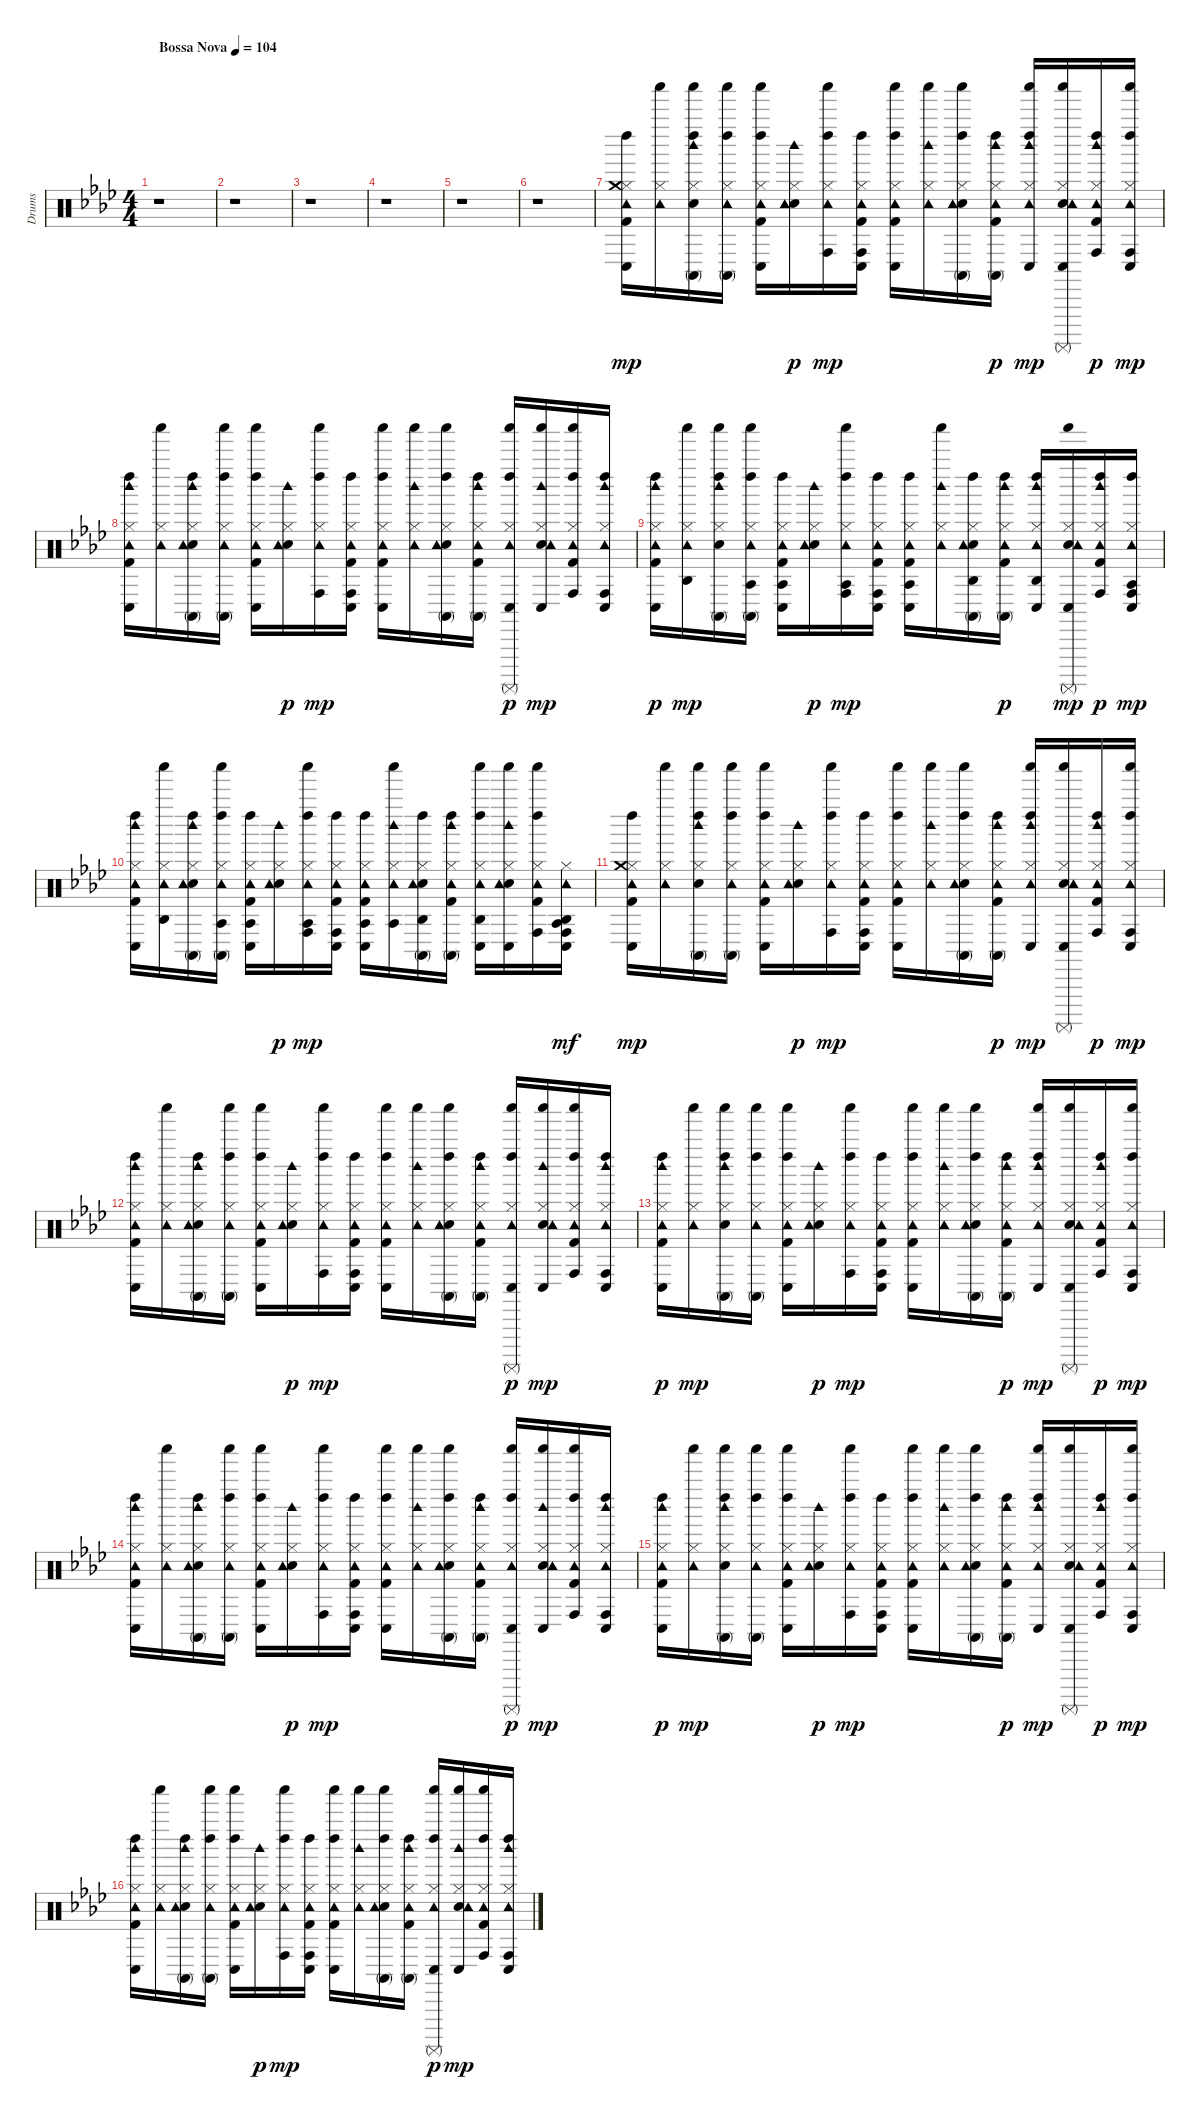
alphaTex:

\track ("Drums" "Drums") {instrument percussion}
\staff {score}
\articulation defaults
\ts (4 4)
\tempo (104 "Bossa Nova")
\clef neutral
\ks ab
r.1{dy mp} |
r.1 |
r.1 |
r.1 |
r.1 |
r.1 |
("Kick (hit) 2" "Hi-Hat (closed)" "Tambourine (hit)" "Crash medium (hit)" "Conga low (hit)" "Left Maraca (hit)").16 ("Hi-Hat (closed)" "Tambourine (hit)" "Shaker (hit)").16 ("Hand Clap (hit)" "Hi-Hat (closed)" "Conga high (mute)" "Left Maraca (hit)" "Woodblock high (hit)" "Shaker (hit)").16 ("Hi-Hat (closed)" "Tambourine (hit)" "Conga high (mute)" "Left Maraca (hit)" "Shaker (hit)").16 ("Kick (hit) 2" "Hi-Hat (closed)" "Tambourine (hit)" "Conga low (hit)" "Left Maraca (hit)" "Shaker (hit)").16 ("Hand Clap (hit)" "Hi-Hat (closed)" "Tambourine (hit)" "Woodblock high (hit)").16{dy p} ("Hi-Hat (closed)" "Tambourine (hit)" "Conga high (hit)" "Left Maraca (hit)" "Shaker (hit)").16{dy mp} ("Kick (hit) 2" "Hi-Hat (closed)" "Tambourine (hit)" "Conga high (hit)" "Conga low (hit)" "Left Maraca (hit)").16 ("Kick (hit) 2" "Hi-Hat (closed)" "Tambourine (hit)" "Conga low (hit)" "Left Maraca (hit)" "Shaker (hit)").16 ("Hi-Hat (closed)" "Tambourine (hit)" "Woodblock high (hit)" "Shaker (hit)").16 ("Hand Clap (hit)" "Hi-Hat (closed)" "Tambourine (hit)" "Conga high (mute)" "Left Maraca (hit)" "Shaker (hit)").16 ("Kick (hit) 2" "Hi-Hat (closed)" "Tambourine (hit)" "Conga high (mute)" "Left Maraca (hit)" "Woodblock high (hit)").16{dy p} ("Hi-Hat (closed)" "Tambourine (hit)" "Conga low (hit)" "Left Maraca (hit)" "Woodblock high (hit)" "Shaker (hit)").16{dy mp} ("Hand Clap (hit)" "Hi-Hat (closed)" "Tambourine (hit)" "Conga low (hit)" "Shaker (hit)" "Surdo (mute)").16 ("Kick (hit) 2" "Hi-Hat (closed)" "Tambourine (hit)" "Conga high (hit)" "Left Maraca (hit)" "Woodblock high (hit)").16{dy p} ("Hi-Hat (closed)" "Tambourine (hit)" "Conga high (hit)" "Conga low (hit)" "Left Maraca (hit)" "Shaker (hit)").16{dy mp} |
("Kick (hit) 2" "Hi-Hat (closed)" "Tambourine (hit)" "Conga low (hit)" "Left Maraca (hit)" "Woodblock high (hit)").16 ("Hi-Hat (closed)" "Tambourine (hit)" "Shaker (hit)").16 ("Hand Clap (hit)" "Hi-Hat (closed)" "Tambourine (hit)" "Conga high (mute)" "Left Maraca (hit)" "Woodblock high (hit)").16 ("Hi-Hat (closed)" "Tambourine (hit)" "Conga high (mute)" "Left Maraca (hit)" "Shaker (hit)").16 ("Kick (hit) 2" "Hi-Hat (closed)" "Tambourine (hit)" "Conga low (hit)" "Left Maraca (hit)" "Shaker (hit)").16 ("Hand Clap (hit)" "Hi-Hat (closed)" "Tambourine (hit)" "Woodblock high (hit)").16{dy p} ("Hi-Hat (closed)" "Tambourine (hit)" "Conga high (hit)" "Left Maraca (hit)" "Shaker (hit)").16{dy mp} ("Kick (hit) 2" "Hi-Hat (closed)" "Tambourine (hit)" "Conga high (hit)" "Conga low (hit)" "Left Maraca (hit)").16 ("Kick (hit) 2" "Hi-Hat (closed)" "Tambourine (hit)" "Conga low (hit)" "Left Maraca (hit)" "Shaker (hit)").16 ("Hi-Hat (closed)" "Tambourine (hit)" "Woodblock high (hit)" "Shaker (hit)").16 ("Hand Clap (hit)" "Hi-Hat (closed)" "Tambourine (hit)" "Conga high (mute)" "Left Maraca (hit)" "Shaker (hit)").16 ("Kick (hit) 2" "Hi-Hat (closed)" "Tambourine (hit)" "Conga high (mute)" "Left Maraca (hit)" "Woodblock high (hit)").16 ("Hi-Hat (closed)" "Tambourine (hit)" "Conga low (hit)" "Left Maraca (hit)" "Shaker (hit)" "Surdo (mute)").16{dy p} ("Hand Clap (hit)" "Hi-Hat (closed)" "Tambourine (hit)" "Conga low (hit)" "Woodblock high (hit)" "Shaker (hit)").16{dy mp} ("Kick (hit) 2" "Hi-Hat (closed)" "Tambourine (hit)" "Conga high (hit)" "Left Maraca (hit)" "Shaker (hit)").16 ("Hi-Hat (closed)" "Tambourine (hit)" "Conga high (hit)" "Conga low (hit)" "Left Maraca (hit)" "Woodblock high (hit)").16 |
("Kick (hit) 2" "Hi-Hat (closed)" "Tambourine (hit)" "Conga low (hit)" "Left Maraca (hit)" "Woodblock high (hit)").16{dy p} ("Hi-Hat (closed)" "Tambourine (hit)" "Agogo high (hit)" "Shaker (hit)").16{dy mp} ("Hand Clap (hit)" "Hi-Hat (closed)" "Conga high (mute)" "Left Maraca (hit)" "Woodblock high (hit)" "Shaker (hit)").16 ("Hi-Hat (closed)" "Tambourine (hit)" "Conga high (mute)" "Agogo tow (hit)" "Left Maraca (hit)" "Shaker (hit)").16 ("Kick (hit) 2" "Hi-Hat (closed)" "Tambourine (hit)" "Conga low (hit)" "Agogo tow (hit)" "Left Maraca (hit)").16 ("Hand Clap (hit)" "Hi-Hat (closed)" "Tambourine (hit)" "Woodblock high (hit)").16{dy p} ("Hi-Hat (closed)" "Tambourine (hit)" "Conga high (hit)" "Agogo tow (hit)" "Left Maraca (hit)" "Shaker (hit)").16{dy mp} ("Kick (hit) 2" "Hi-Hat (closed)" "Tambourine (hit)" "Conga high (hit)" "Conga low (hit)" "Left Maraca (hit)").16 ("Kick (hit) 2" "Hi-Hat (closed)" "Tambourine (hit)" "Conga low (hit)" "Agogo tow (hit)" "Left Maraca (hit)").16 ("Hi-Hat (closed)" "Tambourine (hit)" "Woodblock high (hit)" "Shaker (hit)").16 ("Hand Clap (hit)" "Hi-Hat (closed)" "Tambourine (hit)" "Conga high (mute)" "Agogo high (hit)" "Left Maraca (hit)").16 ("Kick (hit) 2" "Hi-Hat (closed)" "Tambourine (hit)" "Conga high (mute)" "Left Maraca (hit)" "Woodblock high (hit)").16{dy p} ("Hi-Hat (closed)" "Tambourine (hit)" "Conga low (hit)" "Agogo high (hit)" "Left Maraca (hit)" "Woodblock high (hit)").16 ("Hand Clap (hit)" "Hi-Hat (closed)" "Tambourine (hit)" "Conga low (hit)" "Shaker (hit)" "Surdo (mute)").16{dy mp} ("Kick (hit) 2" "Hi-Hat (closed)" "Tambourine (hit)" "Conga high (hit)" "Left Maraca (hit)" "Woodblock high (hit)").16{dy p} ("Hi-Hat (closed)" "Tambourine (hit)" "Conga high (hit)" "Conga low (hit)" "Agogo tow (hit)" "Left Maraca (hit)").16{dy mp} |
("Kick (hit) 2" "Hi-Hat (closed)" "Tambourine (hit)" "Conga low (hit)" "Left Maraca (hit)" "Woodblock high (hit)").16 ("Hi-Hat (closed)" "Tambourine (hit)" "Agogo high (hit)" "Shaker (hit)").16 ("Hand Clap (hit)" "Hi-Hat (closed)" "Tambourine (hit)" "Conga high (mute)" "Left Maraca (hit)" "Woodblock high (hit)").16 ("Hi-Hat (closed)" "Tambourine (hit)" "Conga high (mute)" "Agogo tow (hit)" "Left Maraca (hit)" "Shaker (hit)").16 ("Kick (hit) 2" "Hi-Hat (closed)" "Tambourine (hit)" "Conga low (hit)" "Agogo tow (hit)" "Left Maraca (hit)").16 ("Hand Clap (hit)" "Hi-Hat (closed)" "Tambourine (hit)" "Woodblock high (hit)").16{dy p} ("Hi-Hat (closed)" "Tambourine (hit)" "Conga high (hit)" "Agogo tow (hit)" "Left Maraca (hit)" "Shaker (hit)").16{dy mp} ("Kick (hit) 2" "Hi-Hat (closed)" "Tambourine (hit)" "Conga high (hit)" "Conga low (hit)" "Left Maraca (hit)").16 ("Kick (hit) 2" "Hi-Hat (closed)" "Tambourine (hit)" "Conga low (hit)" "Agogo tow (hit)" "Left Maraca (hit)").16 ("Hi-Hat (closed)" "Tambourine (hit)" "Agogo tow (hit)" "Woodblock high (hit)" "Shaker (hit)").16 ("Hand Clap (hit)" "Hi-Hat (closed)" "Tambourine (hit)" "Conga high (mute)" "Agogo high (hit)" "Left Maraca (hit)").16 ("Kick (hit) 2" "Hi-Hat (closed)" "Tambourine (hit)" "Conga high (mute)" "Left Maraca (hit)" "Woodblock high (hit)").16 ("Hi-Hat (closed)" "Tambourine (hit)" "Conga low (hit)" "Agogo high (hit)" "Left Maraca (hit)" "Shaker (hit)").16 ("Hand Clap (hit)" "Hi-Hat (closed)" "Tambourine (hit)" "Conga low (hit)" "Woodblock high (hit)" "Shaker (hit)").16 ("Kick (hit) 2" "Hi-Hat (closed)" "Tambourine (hit)" "Conga high (hit)" "Left Maraca (hit)" "Shaker (hit)").16 ("Hi-Hat (closed)" "Tambourine (hit)" "Conga high (hit)" "Conga low (hit)" "Agogo high (hit)" "Agogo tow (hit)").16{dy mf} |
("Kick (hit) 2" "Hi-Hat (closed)" "Tambourine (hit)" "Crash medium (hit)" "Conga low (hit)" "Left Maraca (hit)").16{dy mp} ("Hi-Hat (closed)" "Tambourine (hit)" "Shaker (hit)").16 ("Hand Clap (hit)" "Hi-Hat (closed)" "Conga high (mute)" "Left Maraca (hit)" "Woodblock high (hit)" "Shaker (hit)").16 ("Hi-Hat (closed)" "Tambourine (hit)" "Conga high (mute)" "Left Maraca (hit)" "Shaker (hit)").16 ("Kick (hit) 2" "Hi-Hat (closed)" "Tambourine (hit)" "Conga low (hit)" "Left Maraca (hit)" "Shaker (hit)").16 ("Hand Clap (hit)" "Hi-Hat (closed)" "Tambourine (hit)" "Woodblock high (hit)").16{dy p} ("Hi-Hat (closed)" "Tambourine (hit)" "Conga high (hit)" "Left Maraca (hit)" "Shaker (hit)").16{dy mp} ("Kick (hit) 2" "Hi-Hat (closed)" "Tambourine (hit)" "Conga high (hit)" "Conga low (hit)" "Left Maraca (hit)").16 ("Kick (hit) 2" "Hi-Hat (closed)" "Tambourine (hit)" "Conga low (hit)" "Left Maraca (hit)" "Shaker (hit)").16 ("Hi-Hat (closed)" "Tambourine (hit)" "Woodblock high (hit)" "Shaker (hit)").16 ("Hand Clap (hit)" "Hi-Hat (closed)" "Tambourine (hit)" "Conga high (mute)" "Left Maraca (hit)" "Shaker (hit)").16 ("Kick (hit) 2" "Hi-Hat (closed)" "Tambourine (hit)" "Conga high (mute)" "Left Maraca (hit)" "Woodblock high (hit)").16{dy p} ("Hi-Hat (closed)" "Tambourine (hit)" "Conga low (hit)" "Left Maraca (hit)" "Woodblock high (hit)" "Shaker (hit)").16{dy mp} ("Hand Clap (hit)" "Hi-Hat (closed)" "Tambourine (hit)" "Conga low (hit)" "Shaker (hit)" "Surdo (mute)").16 ("Kick (hit) 2" "Hi-Hat (closed)" "Tambourine (hit)" "Conga high (hit)" "Left Maraca (hit)" "Woodblock high (hit)").16{dy p} ("Hi-Hat (closed)" "Tambourine (hit)" "Conga high (hit)" "Conga low (hit)" "Left Maraca (hit)" "Shaker (hit)").16{dy mp} |
("Kick (hit) 2" "Hi-Hat (closed)" "Tambourine (hit)" "Conga low (hit)" "Left Maraca (hit)" "Woodblock high (hit)").16 ("Hi-Hat (closed)" "Tambourine (hit)" "Shaker (hit)").16 ("Hand Clap (hit)" "Hi-Hat (closed)" "Tambourine (hit)" "Conga high (mute)" "Left Maraca (hit)" "Woodblock high (hit)").16 ("Hi-Hat (closed)" "Tambourine (hit)" "Conga high (mute)" "Left Maraca (hit)" "Shaker (hit)").16 ("Kick (hit) 2" "Hi-Hat (closed)" "Tambourine (hit)" "Conga low (hit)" "Left Maraca (hit)" "Shaker (hit)").16 ("Hand Clap (hit)" "Hi-Hat (closed)" "Tambourine (hit)" "Woodblock high (hit)").16{dy p} ("Hi-Hat (closed)" "Tambourine (hit)" "Conga high (hit)" "Left Maraca (hit)" "Shaker (hit)").16{dy mp} ("Kick (hit) 2" "Hi-Hat (closed)" "Tambourine (hit)" "Conga high (hit)" "Conga low (hit)" "Left Maraca (hit)").16 ("Kick (hit) 2" "Hi-Hat (closed)" "Tambourine (hit)" "Conga low (hit)" "Left Maraca (hit)" "Shaker (hit)").16 ("Hi-Hat (closed)" "Tambourine (hit)" "Woodblock high (hit)" "Shaker (hit)").16 ("Hand Clap (hit)" "Hi-Hat (closed)" "Tambourine (hit)" "Conga high (mute)" "Left Maraca (hit)" "Shaker (hit)").16 ("Kick (hit) 2" "Hi-Hat (closed)" "Tambourine (hit)" "Conga high (mute)" "Left Maraca (hit)" "Woodblock high (hit)").16 ("Hi-Hat (closed)" "Tambourine (hit)" "Conga low (hit)" "Left Maraca (hit)" "Shaker (hit)" "Surdo (mute)").16{dy p} ("Hand Clap (hit)" "Hi-Hat (closed)" "Tambourine (hit)" "Conga low (hit)" "Woodblock high (hit)" "Shaker (hit)").16{dy mp} ("Kick (hit) 2" "Hi-Hat (closed)" "Tambourine (hit)" "Conga high (hit)" "Left Maraca (hit)" "Shaker (hit)").16 ("Hi-Hat (closed)" "Tambourine (hit)" "Conga high (hit)" "Conga low (hit)" "Left Maraca (hit)" "Woodblock high (hit)").16 |
("Kick (hit) 2" "Hi-Hat (closed)" "Tambourine (hit)" "Conga low (hit)" "Left Maraca (hit)" "Woodblock high (hit)").16{dy p} ("Hi-Hat (closed)" "Tambourine (hit)" "Shaker (hit)").16{dy mp} ("Hand Clap (hit)" "Hi-Hat (closed)" "Conga high (mute)" "Left Maraca (hit)" "Woodblock high (hit)" "Shaker (hit)").16 ("Hi-Hat (closed)" "Tambourine (hit)" "Conga high (mute)" "Left Maraca (hit)" "Shaker (hit)").16 ("Kick (hit) 2" "Hi-Hat (closed)" "Tambourine (hit)" "Conga low (hit)" "Left Maraca (hit)" "Shaker (hit)").16 ("Hand Clap (hit)" "Hi-Hat (closed)" "Tambourine (hit)" "Woodblock high (hit)").16{dy p} ("Hi-Hat (closed)" "Tambourine (hit)" "Conga high (hit)" "Left Maraca (hit)" "Shaker (hit)").16{dy mp} ("Kick (hit) 2" "Hi-Hat (closed)" "Tambourine (hit)" "Conga high (hit)" "Conga low (hit)" "Left Maraca (hit)").16 ("Kick (hit) 2" "Hi-Hat (closed)" "Tambourine (hit)" "Conga low (hit)" "Left Maraca (hit)" "Shaker (hit)").16 ("Hi-Hat (closed)" "Tambourine (hit)" "Woodblock high (hit)" "Shaker (hit)").16 ("Hand Clap (hit)" "Hi-Hat (closed)" "Tambourine (hit)" "Conga high (mute)" "Left Maraca (hit)" "Shaker (hit)").16 ("Kick (hit) 2" "Hi-Hat (closed)" "Tambourine (hit)" "Conga high (mute)" "Left Maraca (hit)" "Woodblock high (hit)").16{dy p} ("Hi-Hat (closed)" "Tambourine (hit)" "Conga low (hit)" "Left Maraca (hit)" "Woodblock high (hit)" "Shaker (hit)").16{dy mp} ("Hand Clap (hit)" "Hi-Hat (closed)" "Tambourine (hit)" "Conga low (hit)" "Shaker (hit)" "Surdo (mute)").16 ("Kick (hit) 2" "Hi-Hat (closed)" "Tambourine (hit)" "Conga high (hit)" "Left Maraca (hit)" "Woodblock high (hit)").16{dy p} ("Hi-Hat (closed)" "Tambourine (hit)" "Conga high (hit)" "Conga low (hit)" "Left Maraca (hit)" "Shaker (hit)").16{dy mp} |
("Kick (hit) 2" "Hi-Hat (closed)" "Tambourine (hit)" "Conga low (hit)" "Left Maraca (hit)" "Woodblock high (hit)").16 ("Hi-Hat (closed)" "Tambourine (hit)" "Shaker (hit)").16 ("Hand Clap (hit)" "Hi-Hat (closed)" "Tambourine (hit)" "Conga high (mute)" "Left Maraca (hit)" "Woodblock high (hit)").16 ("Hi-Hat (closed)" "Tambourine (hit)" "Conga high (mute)" "Left Maraca (hit)" "Shaker (hit)").16 ("Kick (hit) 2" "Hi-Hat (closed)" "Tambourine (hit)" "Conga low (hit)" "Left Maraca (hit)" "Shaker (hit)").16 ("Hand Clap (hit)" "Hi-Hat (closed)" "Tambourine (hit)" "Woodblock high (hit)").16{dy p} ("Hi-Hat (closed)" "Tambourine (hit)" "Conga high (hit)" "Left Maraca (hit)" "Shaker (hit)").16{dy mp} ("Kick (hit) 2" "Hi-Hat (closed)" "Tambourine (hit)" "Conga high (hit)" "Conga low (hit)" "Left Maraca (hit)").16 ("Kick (hit) 2" "Hi-Hat (closed)" "Tambourine (hit)" "Conga low (hit)" "Left Maraca (hit)" "Shaker (hit)").16 ("Hi-Hat (closed)" "Tambourine (hit)" "Woodblock high (hit)" "Shaker (hit)").16 ("Hand Clap (hit)" "Hi-Hat (closed)" "Tambourine (hit)" "Conga high (mute)" "Left Maraca (hit)" "Shaker (hit)").16 ("Kick (hit) 2" "Hi-Hat (closed)" "Tambourine (hit)" "Conga high (mute)" "Left Maraca (hit)" "Woodblock high (hit)").16 ("Hi-Hat (closed)" "Tambourine (hit)" "Conga low (hit)" "Left Maraca (hit)" "Shaker (hit)" "Surdo (mute)").16{dy p} ("Hand Clap (hit)" "Hi-Hat (closed)" "Tambourine (hit)" "Conga low (hit)" "Woodblock high (hit)" "Shaker (hit)").16{dy mp} ("Kick (hit) 2" "Hi-Hat (closed)" "Tambourine (hit)" "Conga high (hit)" "Left Maraca (hit)" "Shaker (hit)").16 ("Hi-Hat (closed)" "Tambourine (hit)" "Conga high (hit)" "Conga low (hit)" "Left Maraca (hit)" "Woodblock high (hit)").16 |
("Kick (hit) 2" "Hi-Hat (closed)" "Tambourine (hit)" "Conga low (hit)" "Left Maraca (hit)" "Woodblock high (hit)").16{dy p} ("Hi-Hat (closed)" "Tambourine (hit)" "Shaker (hit)").16{dy mp} ("Hand Clap (hit)" "Hi-Hat (closed)" "Conga high (mute)" "Left Maraca (hit)" "Woodblock high (hit)" "Shaker (hit)").16 ("Hi-Hat (closed)" "Tambourine (hit)" "Conga high (mute)" "Left Maraca (hit)" "Shaker (hit)").16 ("Kick (hit) 2" "Hi-Hat (closed)" "Tambourine (hit)" "Conga low (hit)" "Left Maraca (hit)" "Shaker (hit)").16 ("Hand Clap (hit)" "Hi-Hat (closed)" "Tambourine (hit)" "Woodblock high (hit)").16{dy p} ("Hi-Hat (closed)" "Tambourine (hit)" "Conga high (hit)" "Left Maraca (hit)" "Shaker (hit)").16{dy mp} ("Kick (hit) 2" "Hi-Hat (closed)" "Tambourine (hit)" "Conga high (hit)" "Conga low (hit)" "Left Maraca (hit)").16 ("Kick (hit) 2" "Hi-Hat (closed)" "Tambourine (hit)" "Conga low (hit)" "Left Maraca (hit)" "Shaker (hit)").16 ("Hi-Hat (closed)" "Tambourine (hit)" "Woodblock high (hit)" "Shaker (hit)").16 ("Hand Clap (hit)" "Hi-Hat (closed)" "Tambourine (hit)" "Conga high (mute)" "Left Maraca (hit)" "Shaker (hit)").16 ("Kick (hit) 2" "Hi-Hat (closed)" "Tambourine (hit)" "Conga high (mute)" "Left Maraca (hit)" "Woodblock high (hit)").16{dy p} ("Hi-Hat (closed)" "Tambourine (hit)" "Conga low (hit)" "Left Maraca (hit)" "Woodblock high (hit)" "Shaker (hit)").16{dy mp} ("Hand Clap (hit)" "Hi-Hat (closed)" "Tambourine (hit)" "Conga low (hit)" "Shaker (hit)" "Surdo (mute)").16 ("Kick (hit) 2" "Hi-Hat (closed)" "Tambourine (hit)" "Conga high (hit)" "Left Maraca (hit)" "Woodblock high (hit)").16{dy p} ("Hi-Hat (closed)" "Tambourine (hit)" "Conga high (hit)" "Conga low (hit)" "Left Maraca (hit)" "Shaker (hit)").16{dy mp} |
("Kick (hit) 2" "Hi-Hat (closed)" "Tambourine (hit)" "Conga low (hit)" "Left Maraca (hit)" "Woodblock high (hit)").16 ("Hi-Hat (closed)" "Tambourine (hit)" "Shaker (hit)").16 ("Hand Clap (hit)" "Hi-Hat (closed)" "Tambourine (hit)" "Conga high (mute)" "Left Maraca (hit)" "Woodblock high (hit)").16 ("Hi-Hat (closed)" "Tambourine (hit)" "Conga high (mute)" "Left Maraca (hit)" "Shaker (hit)").16 ("Kick (hit) 2" "Hi-Hat (closed)" "Tambourine (hit)" "Conga low (hit)" "Left Maraca (hit)" "Shaker (hit)").16 ("Hand Clap (hit)" "Hi-Hat (closed)" "Tambourine (hit)" "Woodblock high (hit)").16{dy p} ("Hi-Hat (closed)" "Tambourine (hit)" "Conga high (hit)" "Left Maraca (hit)" "Shaker (hit)").16{dy mp} ("Kick (hit) 2" "Hi-Hat (closed)" "Tambourine (hit)" "Conga high (hit)" "Conga low (hit)" "Left Maraca (hit)").16 ("Kick (hit) 2" "Hi-Hat (closed)" "Tambourine (hit)" "Conga low (hit)" "Left Maraca (hit)" "Shaker (hit)").16 ("Hi-Hat (closed)" "Tambourine (hit)" "Woodblock high (hit)" "Shaker (hit)").16 ("Hand Clap (hit)" "Hi-Hat (closed)" "Tambourine (hit)" "Conga high (mute)" "Left Maraca (hit)" "Shaker (hit)").16 ("Kick (hit) 2" "Hi-Hat (closed)" "Tambourine (hit)" "Conga high (mute)" "Left Maraca (hit)" "Woodblock high (hit)").16 ("Hi-Hat (closed)" "Tambourine (hit)" "Conga low (hit)" "Left Maraca (hit)" "Shaker (hit)" "Surdo (mute)").16{dy p} ("Hand Clap (hit)" "Hi-Hat (closed)" "Tambourine (hit)" "Conga low (hit)" "Woodblock high (hit)" "Shaker (hit)").16{dy mp} ("Kick (hit) 2" "Hi-Hat (closed)" "Tambourine (hit)" "Conga high (hit)" "Left Maraca (hit)" "Shaker (hit)").16 ("Hi-Hat (closed)" "Tambourine (hit)" "Conga high (hit)" "Conga low (hit)" "Left Maraca (hit)" "Woodblock high (hit)").16
